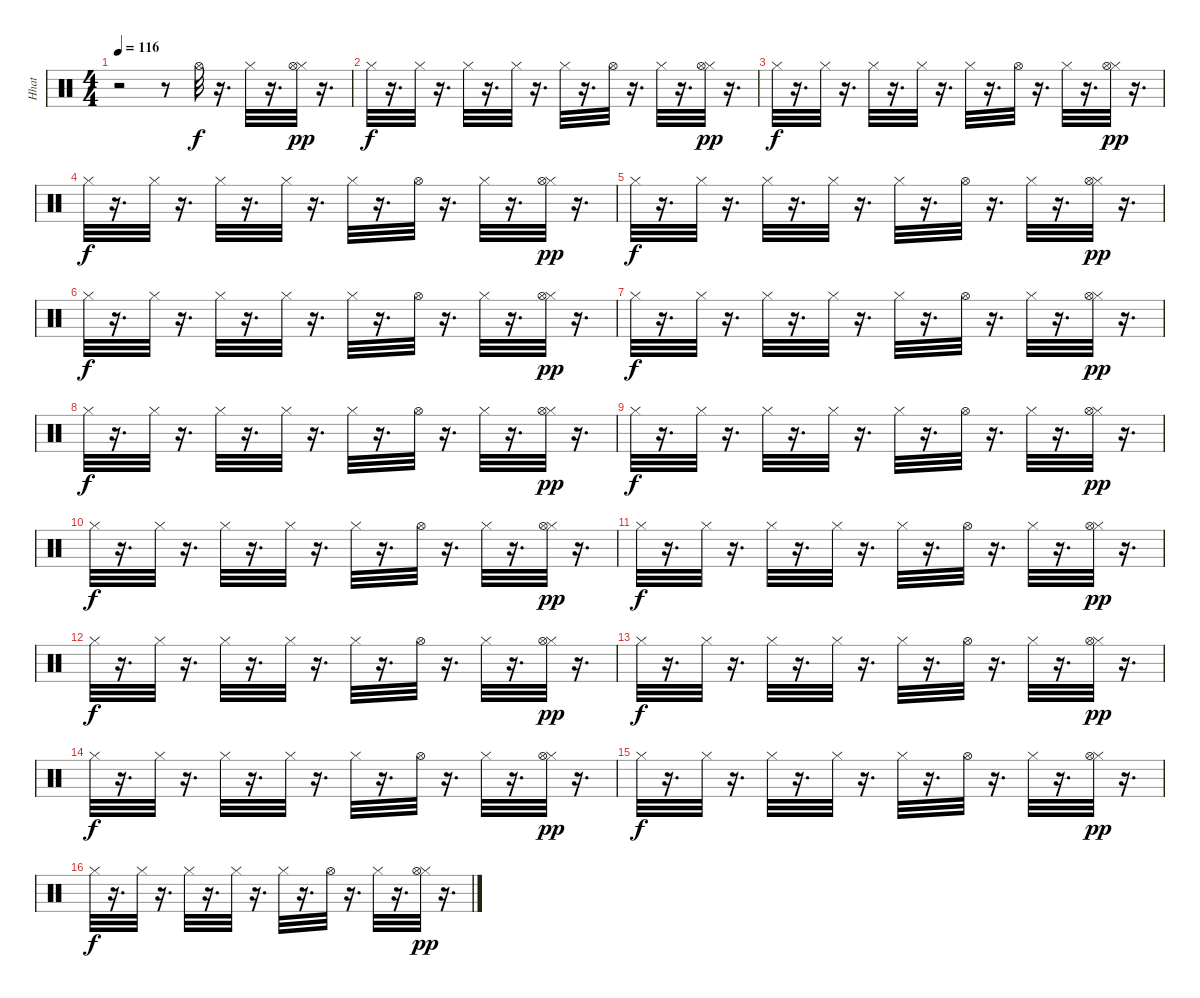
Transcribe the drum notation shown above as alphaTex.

\track ("Hhat" "Hhat") {instrument percussion}
\staff {score}
\articulation defaults
\ts (4 4)
\tempo 116
\clef neutral
\ks c
r.2{dy f} r.8 "Hi-Hat (open)".32 r.16{d} "Hi-Hat (closed)".32 r.16{d} ("Hi-Hat (closed)" "Hi-Hat (open)").32{dy pp} r.16{d} |
"Hi-Hat (closed)".32{dy f} r.16{d} "Hi-Hat (closed)".32 r.16{d} "Hi-Hat (closed)".32 r.16{d} "Hi-Hat (closed)".32 r.16{d} "Hi-Hat (closed)".32 r.16{d} "Hi-Hat (open)".32 r.16{d} "Hi-Hat (closed)".32 r.16{d} ("Hi-Hat (closed)" "Hi-Hat (open)").32{dy pp} r.16{d} |
"Hi-Hat (closed)".32{dy f} r.16{d} "Hi-Hat (closed)".32 r.16{d} "Hi-Hat (closed)".32 r.16{d} "Hi-Hat (closed)".32 r.16{d} "Hi-Hat (closed)".32 r.16{d} "Hi-Hat (open)".32 r.16{d} "Hi-Hat (closed)".32 r.16{d} ("Hi-Hat (closed)" "Hi-Hat (open)").32{dy pp} r.16{d} |
"Hi-Hat (closed)".32{dy f} r.16{d} "Hi-Hat (closed)".32 r.16{d} "Hi-Hat (closed)".32 r.16{d} "Hi-Hat (closed)".32 r.16{d} "Hi-Hat (closed)".32 r.16{d} "Hi-Hat (open)".32 r.16{d} "Hi-Hat (closed)".32 r.16{d} ("Hi-Hat (closed)" "Hi-Hat (open)").32{dy pp} r.16{d} |
"Hi-Hat (closed)".32{dy f} r.16{d} "Hi-Hat (closed)".32 r.16{d} "Hi-Hat (closed)".32 r.16{d} "Hi-Hat (closed)".32 r.16{d} "Hi-Hat (closed)".32 r.16{d} "Hi-Hat (open)".32 r.16{d} "Hi-Hat (closed)".32 r.16{d} ("Hi-Hat (closed)" "Hi-Hat (open)").32{dy pp} r.16{d} |
"Hi-Hat (closed)".32{dy f} r.16{d} "Hi-Hat (closed)".32 r.16{d} "Hi-Hat (closed)".32 r.16{d} "Hi-Hat (closed)".32 r.16{d} "Hi-Hat (closed)".32 r.16{d} "Hi-Hat (open)".32 r.16{d} "Hi-Hat (closed)".32 r.16{d} ("Hi-Hat (closed)" "Hi-Hat (open)").32{dy pp} r.16{d} |
"Hi-Hat (closed)".32{dy f} r.16{d} "Hi-Hat (closed)".32 r.16{d} "Hi-Hat (closed)".32 r.16{d} "Hi-Hat (closed)".32 r.16{d} "Hi-Hat (closed)".32 r.16{d} "Hi-Hat (open)".32 r.16{d} "Hi-Hat (closed)".32 r.16{d} ("Hi-Hat (closed)" "Hi-Hat (open)").32{dy pp} r.16{d} |
"Hi-Hat (closed)".32{dy f} r.16{d} "Hi-Hat (closed)".32 r.16{d} "Hi-Hat (closed)".32 r.16{d} "Hi-Hat (closed)".32 r.16{d} "Hi-Hat (closed)".32 r.16{d} "Hi-Hat (open)".32 r.16{d} "Hi-Hat (closed)".32 r.16{d} ("Hi-Hat (closed)" "Hi-Hat (open)").32{dy pp} r.16{d} |
"Hi-Hat (closed)".32{dy f} r.16{d} "Hi-Hat (closed)".32 r.16{d} "Hi-Hat (closed)".32 r.16{d} "Hi-Hat (closed)".32 r.16{d} "Hi-Hat (closed)".32 r.16{d} "Hi-Hat (open)".32 r.16{d} "Hi-Hat (closed)".32 r.16{d} ("Hi-Hat (closed)" "Hi-Hat (open)").32{dy pp} r.16{d} |
"Hi-Hat (closed)".32{dy f} r.16{d} "Hi-Hat (closed)".32 r.16{d} "Hi-Hat (closed)".32 r.16{d} "Hi-Hat (closed)".32 r.16{d} "Hi-Hat (closed)".32 r.16{d} "Hi-Hat (open)".32 r.16{d} "Hi-Hat (closed)".32 r.16{d} ("Hi-Hat (closed)" "Hi-Hat (open)").32{dy pp} r.16{d} |
"Hi-Hat (closed)".32{dy f} r.16{d} "Hi-Hat (closed)".32 r.16{d} "Hi-Hat (closed)".32 r.16{d} "Hi-Hat (closed)".32 r.16{d} "Hi-Hat (closed)".32 r.16{d} "Hi-Hat (open)".32 r.16{d} "Hi-Hat (closed)".32 r.16{d} ("Hi-Hat (closed)" "Hi-Hat (open)").32{dy pp} r.16{d} |
"Hi-Hat (closed)".32{dy f} r.16{d} "Hi-Hat (closed)".32 r.16{d} "Hi-Hat (closed)".32 r.16{d} "Hi-Hat (closed)".32 r.16{d} "Hi-Hat (closed)".32 r.16{d} "Hi-Hat (open)".32 r.16{d} "Hi-Hat (closed)".32 r.16{d} ("Hi-Hat (closed)" "Hi-Hat (open)").32{dy pp} r.16{d} |
"Hi-Hat (closed)".32{dy f} r.16{d} "Hi-Hat (closed)".32 r.16{d} "Hi-Hat (closed)".32 r.16{d} "Hi-Hat (closed)".32 r.16{d} "Hi-Hat (closed)".32 r.16{d} "Hi-Hat (open)".32 r.16{d} "Hi-Hat (closed)".32 r.16{d} ("Hi-Hat (closed)" "Hi-Hat (open)").32{dy pp} r.16{d} |
"Hi-Hat (closed)".32{dy f} r.16{d} "Hi-Hat (closed)".32 r.16{d} "Hi-Hat (closed)".32 r.16{d} "Hi-Hat (closed)".32 r.16{d} "Hi-Hat (closed)".32 r.16{d} "Hi-Hat (open)".32 r.16{d} "Hi-Hat (closed)".32 r.16{d} ("Hi-Hat (closed)" "Hi-Hat (open)").32{dy pp} r.16{d} |
"Hi-Hat (closed)".32{dy f} r.16{d} "Hi-Hat (closed)".32 r.16{d} "Hi-Hat (closed)".32 r.16{d} "Hi-Hat (closed)".32 r.16{d} "Hi-Hat (closed)".32 r.16{d} "Hi-Hat (open)".32 r.16{d} "Hi-Hat (closed)".32 r.16{d} ("Hi-Hat (closed)" "Hi-Hat (open)").32{dy pp} r.16{d} |
"Hi-Hat (closed)".32{dy f} r.16{d} "Hi-Hat (closed)".32 r.16{d} "Hi-Hat (closed)".32 r.16{d} "Hi-Hat (closed)".32 r.16{d} "Hi-Hat (closed)".32 r.16{d} "Hi-Hat (open)".32 r.16{d} "Hi-Hat (closed)".32 r.16{d} ("Hi-Hat (closed)" "Hi-Hat (open)").32{dy pp} r.16{d}
